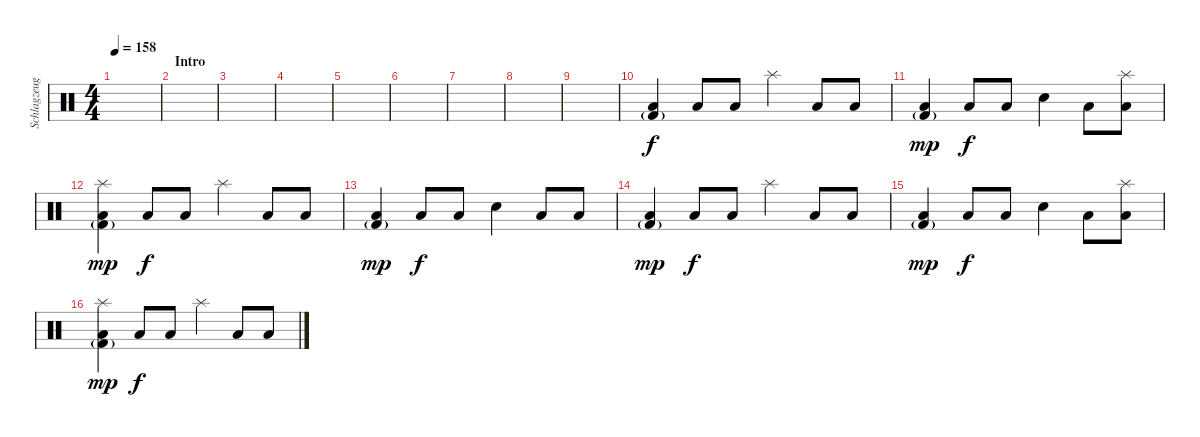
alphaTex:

\track ("Schlagzeug" "Schlagzeug") {instrument percussion}
\staff {score}
\articulation defaults
\ts (4 4)
\tempo 158
\clef neutral
\ks c
|
\section ("" "Intro")
|
|
|
|
|
|
|
|
("Low Floor Tom (hit)" "Kick (hit) 2"{g}).4 "Low Floor Tom (hit)".8{dy f} "Low Floor Tom (hit)".8 "Splash (hit)".4 "Low Floor Tom (hit)".8 "Low Floor Tom (hit)".8 |
("Low Floor Tom (hit)" "Kick (hit) 2"{g}).4{dy mp} "Low Floor Tom (hit)".8{dy f} "Low Floor Tom (hit)".8 "Snare (hit) 2".4 "Low Floor Tom (hit)".8 ("Splash (hit)" "Low Floor Tom (hit)").8 |
("Splash (hit)" "Low Floor Tom (hit)" "Kick (hit) 2"{g}).4{dy mp} "Low Floor Tom (hit)".8{dy f} "Low Floor Tom (hit)".8 "Splash (hit)".4 "Low Floor Tom (hit)".8 "Low Floor Tom (hit)".8 |
("Low Floor Tom (hit)" "Kick (hit) 2"{g}).4{dy mp} "Low Floor Tom (hit)".8{dy f} "Low Floor Tom (hit)".8 "Snare (hit) 2".4 "Low Floor Tom (hit)".8 "Low Floor Tom (hit)".8 |
("Low Floor Tom (hit)" "Kick (hit) 2"{g}).4{dy mp} "Low Floor Tom (hit)".8{dy f} "Low Floor Tom (hit)".8 "Splash (hit)".4 "Low Floor Tom (hit)".8 "Low Floor Tom (hit)".8 |
("Low Floor Tom (hit)" "Kick (hit) 2"{g}).4{dy mp} "Low Floor Tom (hit)".8{dy f} "Low Floor Tom (hit)".8 "Snare (hit) 2".4 "Low Floor Tom (hit)".8 ("Splash (hit)" "Low Floor Tom (hit)").8 |
("Splash (hit)" "Low Floor Tom (hit)" "Kick (hit) 2"{g}).4{dy mp} "Low Floor Tom (hit)".8{dy f} "Low Floor Tom (hit)".8 "Splash (hit)".4 "Low Floor Tom (hit)".8 "Low Floor Tom (hit)".8
